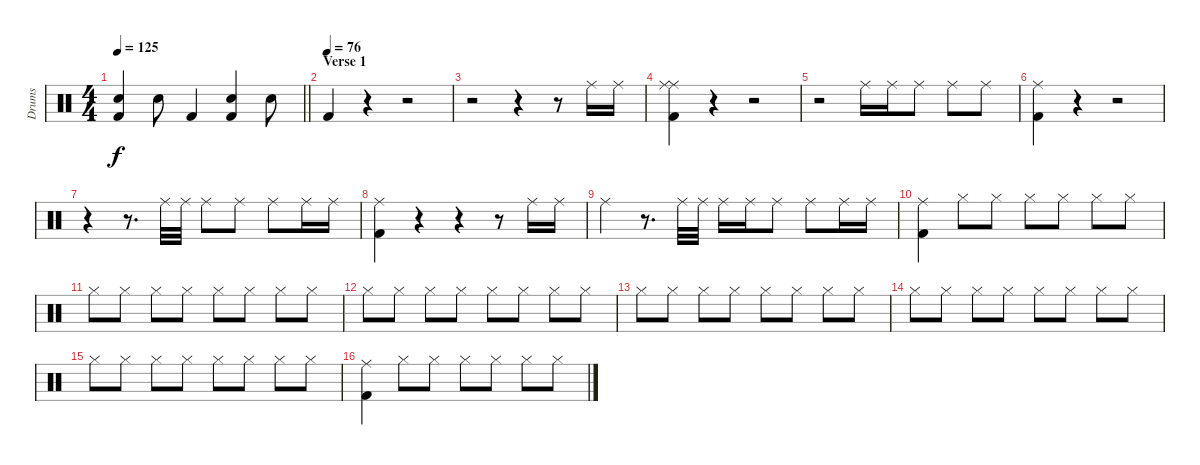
\track ("Drums" "Drums") {instrument percussion}
\staff {score}
\articulation defaults
\ts (4 4)
\tempo 125
\clef neutral
\barLineRight lightlight
\ks c
("Snare (hit) 2" "Kick (hit) 2").4{dy f} "Snare (hit) 2".8 "Kick (hit) 2".4 ("Snare (hit) 2" "Kick (hit) 2").4 "Snare (hit) 2".8 |
\section ("" "Verse 1")
\tempo (76)
"Kick (hit) 2".4{volume 16} r.4 r.2 |
r.2 r.4 r.8 "Ride (middle)".16 "Ride (middle)".16 |
("Ride (middle)" "Ride (middle)" "Kick (hit) 2").4 r.4 r.2 |
r.2 "Ride (middle)".16 "Ride (middle)".16 "Ride (middle)".8 "Ride (middle)".8 "Ride (middle)".8 |
("Ride (middle)" "Kick (hit) 2").4 r.4 r.2 |
r.4 r.8{d} "Ride (middle)".32 "Ride (middle)".32 "Ride (middle)".8 "Ride (middle)".8 "Ride (middle)".8 "Ride (middle)".16 "Ride (middle)".16 |
("Ride (middle)" "Kick (hit) 2").4 r.4 r.4 r.8 "Ride (middle)".16 "Ride (middle)".16 |
"Ride (middle)".4 r.8{d} "Ride (middle)".32 "Ride (middle)".32 "Ride (middle)".16 "Ride (middle)".16 "Ride (middle)".8 "Ride (middle)".8 "Ride (middle)".16 "Ride (middle)".16 |
("Ride (middle)" "Kick (hit) 2").4 "Hi-Hat (closed)".8 "Hi-Hat (closed)".8 "Hi-Hat (closed)".8 "Hi-Hat (closed)".8 "Hi-Hat (closed)".8 "Hi-Hat (closed)".8 |
"Hi-Hat (closed)".8 "Hi-Hat (closed)".8 "Hi-Hat (closed)".8 "Hi-Hat (closed)".8 "Hi-Hat (closed)".8 "Hi-Hat (closed)".8 "Hi-Hat (closed)".8 "Hi-Hat (closed)".8 |
"Hi-Hat (closed)".8 "Hi-Hat (closed)".8 "Hi-Hat (closed)".8 "Hi-Hat (closed)".8 "Hi-Hat (closed)".8 "Hi-Hat (closed)".8 "Hi-Hat (closed)".8 "Hi-Hat (closed)".8 |
"Hi-Hat (closed)".8 "Hi-Hat (closed)".8 "Hi-Hat (closed)".8 "Hi-Hat (closed)".8 "Hi-Hat (closed)".8 "Hi-Hat (closed)".8 "Hi-Hat (closed)".8 "Hi-Hat (closed)".8 |
"Hi-Hat (closed)".8 "Hi-Hat (closed)".8 "Hi-Hat (closed)".8 "Hi-Hat (closed)".8 "Hi-Hat (closed)".8 "Hi-Hat (closed)".8 "Hi-Hat (closed)".8 "Hi-Hat (closed)".8 |
"Hi-Hat (closed)".8 "Hi-Hat (closed)".8 "Hi-Hat (closed)".8 "Hi-Hat (closed)".8 "Hi-Hat (closed)".8 "Hi-Hat (closed)".8 "Hi-Hat (closed)".8 "Hi-Hat (closed)".8 |
("Ride (middle)" "Kick (hit) 2").4 "Hi-Hat (closed)".8 "Hi-Hat (closed)".8 "Hi-Hat (closed)".8 "Hi-Hat (closed)".8 "Hi-Hat (closed)".8 "Hi-Hat (closed)".8
